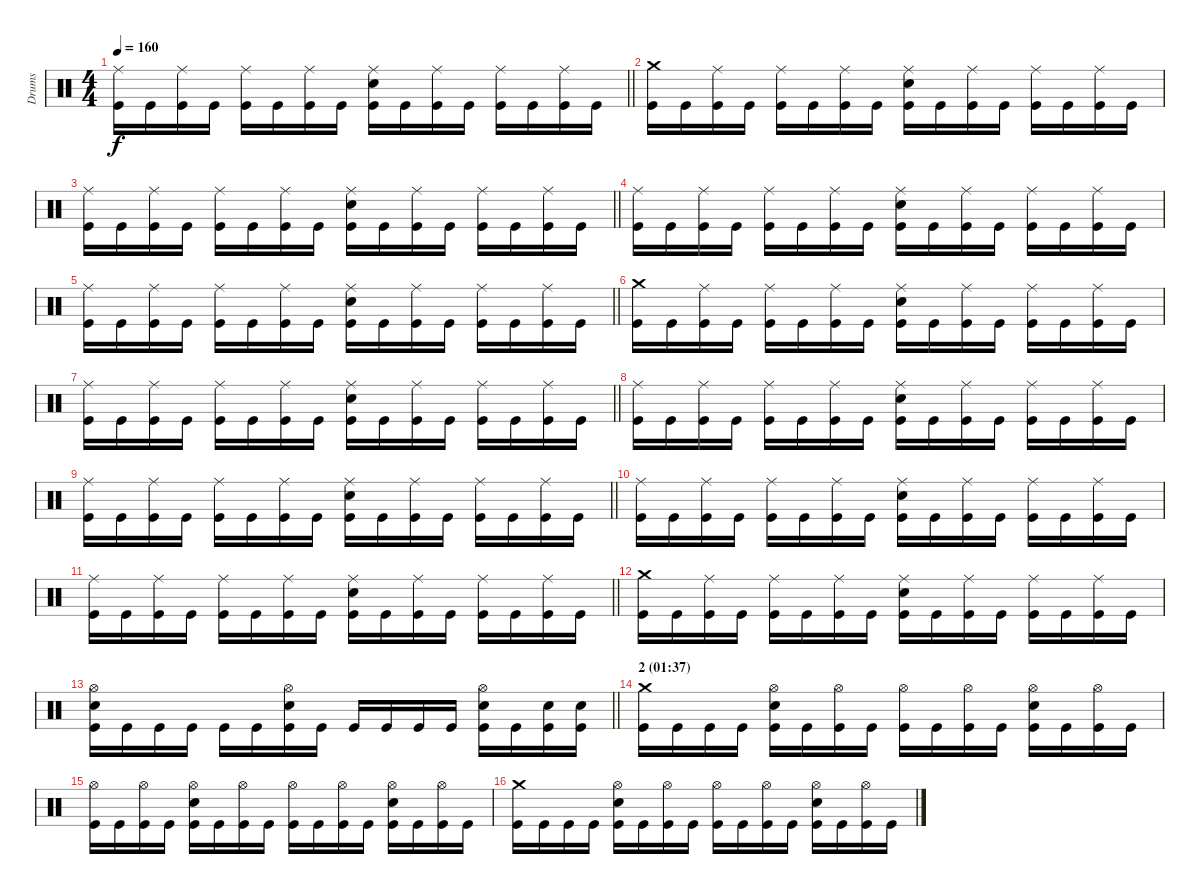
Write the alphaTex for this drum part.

\track ("Drums" "Drums") {instrument percussion}
\staff {score}
\articulation defaults
\ts (4 4)
\tempo 160
\clef neutral
\barLineRight lightlight
\ks c
("Ride (middle)" "Kick (hit)").16{dy f} "Kick (hit)".16 ("Ride (middle)" "Kick (hit)").16 "Kick (hit)".16 ("Ride (middle)" "Kick (hit)").16 "Kick (hit)".16 ("Ride (middle)" "Kick (hit)").16 "Kick (hit)".16 ("Ride (middle)" "Electric Snare (hit)" "Kick (hit)").16 "Kick (hit)".16 ("Ride (middle)" "Kick (hit)").16 "Kick (hit)".16 ("Ride (middle)" "Kick (hit)").16 "Kick (hit)".16 ("Ride (middle)" "Kick (hit)").16 "Kick (hit)".16 |
("Crash medium (hit)" "Kick (hit)").16 "Kick (hit)".16 ("Ride (middle)" "Kick (hit)").16 "Kick (hit)".16 ("Ride (middle)" "Kick (hit)").16 "Kick (hit)".16 ("Ride (middle)" "Kick (hit)").16 "Kick (hit)".16 ("Ride (middle)" "Electric Snare (hit)" "Kick (hit)").16 "Kick (hit)".16 ("Ride (middle)" "Kick (hit)").16 "Kick (hit)".16 ("Ride (middle)" "Kick (hit)").16 "Kick (hit)".16 ("Ride (middle)" "Kick (hit)").16 "Kick (hit)".16 |
\barLineRight lightlight
("Ride (middle)" "Kick (hit)").16 "Kick (hit)".16 ("Ride (middle)" "Kick (hit)").16 "Kick (hit)".16 ("Ride (middle)" "Kick (hit)").16 "Kick (hit)".16 ("Ride (middle)" "Kick (hit)").16 "Kick (hit)".16 ("Ride (middle)" "Electric Snare (hit)" "Kick (hit)").16 "Kick (hit)".16 ("Ride (middle)" "Kick (hit)").16 "Kick (hit)".16 ("Ride (middle)" "Kick (hit)").16 "Kick (hit)".16 ("Ride (middle)" "Kick (hit)").16 "Kick (hit)".16 |
("Ride (middle)" "Kick (hit)").16 "Kick (hit)".16 ("Ride (middle)" "Kick (hit)").16 "Kick (hit)".16 ("Ride (middle)" "Kick (hit)").16 "Kick (hit)".16 ("Ride (middle)" "Kick (hit)").16 "Kick (hit)".16 ("Ride (middle)" "Electric Snare (hit)" "Kick (hit)").16 "Kick (hit)".16 ("Ride (middle)" "Kick (hit)").16 "Kick (hit)".16 ("Ride (middle)" "Kick (hit)").16 "Kick (hit)".16 ("Ride (middle)" "Kick (hit)").16 "Kick (hit)".16 |
\barLineRight lightlight
("Ride (middle)" "Kick (hit)").16 "Kick (hit)".16 ("Ride (middle)" "Kick (hit)").16 "Kick (hit)".16 ("Ride (middle)" "Kick (hit)").16 "Kick (hit)".16 ("Ride (middle)" "Kick (hit)").16 "Kick (hit)".16 ("Ride (middle)" "Electric Snare (hit)" "Kick (hit)").16 "Kick (hit)".16 ("Ride (middle)" "Kick (hit)").16 "Kick (hit)".16 ("Ride (middle)" "Kick (hit)").16 "Kick (hit)".16 ("Ride (middle)" "Kick (hit)").16 "Kick (hit)".16 |
("Crash medium (hit)" "Kick (hit)").16 "Kick (hit)".16 ("Ride (middle)" "Kick (hit)").16 "Kick (hit)".16 ("Ride (middle)" "Kick (hit)").16 "Kick (hit)".16 ("Ride (middle)" "Kick (hit)").16 "Kick (hit)".16 ("Ride (middle)" "Electric Snare (hit)" "Kick (hit)").16 "Kick (hit)".16 ("Ride (middle)" "Kick (hit)").16 "Kick (hit)".16 ("Ride (middle)" "Kick (hit)").16 "Kick (hit)".16 ("Ride (middle)" "Kick (hit)").16 "Kick (hit)".16 |
\barLineRight lightlight
("Ride (middle)" "Kick (hit)").16 "Kick (hit)".16 ("Ride (middle)" "Kick (hit)").16 "Kick (hit)".16 ("Ride (middle)" "Kick (hit)").16 "Kick (hit)".16 ("Ride (middle)" "Kick (hit)").16 "Kick (hit)".16 ("Ride (middle)" "Electric Snare (hit)" "Kick (hit)").16 "Kick (hit)".16 ("Ride (middle)" "Kick (hit)").16 "Kick (hit)".16 ("Ride (middle)" "Kick (hit)").16 "Kick (hit)".16 ("Ride (middle)" "Kick (hit)").16 "Kick (hit)".16 |
("Ride (middle)" "Kick (hit)").16 "Kick (hit)".16 ("Ride (middle)" "Kick (hit)").16 "Kick (hit)".16 ("Ride (middle)" "Kick (hit)").16 "Kick (hit)".16 ("Ride (middle)" "Kick (hit)").16 "Kick (hit)".16 ("Ride (middle)" "Electric Snare (hit)" "Kick (hit)").16 "Kick (hit)".16 ("Ride (middle)" "Kick (hit)").16 "Kick (hit)".16 ("Ride (middle)" "Kick (hit)").16 "Kick (hit)".16 ("Ride (middle)" "Kick (hit)").16 "Kick (hit)".16 |
\barLineRight lightlight
("Ride (middle)" "Kick (hit)").16 "Kick (hit)".16 ("Ride (middle)" "Kick (hit)").16 "Kick (hit)".16 ("Ride (middle)" "Kick (hit)").16 "Kick (hit)".16 ("Ride (middle)" "Kick (hit)").16 "Kick (hit)".16 ("Ride (middle)" "Electric Snare (hit)" "Kick (hit)").16 "Kick (hit)".16 ("Ride (middle)" "Kick (hit)").16 "Kick (hit)".16 ("Ride (middle)" "Kick (hit)").16 "Kick (hit)".16 ("Ride (middle)" "Kick (hit)").16 "Kick (hit)".16 |
("Ride (middle)" "Kick (hit)").16 "Kick (hit)".16 ("Ride (middle)" "Kick (hit)").16 "Kick (hit)".16 ("Ride (middle)" "Kick (hit)").16 "Kick (hit)".16 ("Ride (middle)" "Kick (hit)").16 "Kick (hit)".16 ("Ride (middle)" "Electric Snare (hit)" "Kick (hit)").16 "Kick (hit)".16 ("Ride (middle)" "Kick (hit)").16 "Kick (hit)".16 ("Ride (middle)" "Kick (hit)").16 "Kick (hit)".16 ("Ride (middle)" "Kick (hit)").16 "Kick (hit)".16 |
\barLineRight lightlight
("Ride (middle)" "Kick (hit)").16 "Kick (hit)".16 ("Ride (middle)" "Kick (hit)").16 "Kick (hit)".16 ("Ride (middle)" "Kick (hit)").16 "Kick (hit)".16 ("Ride (middle)" "Kick (hit)").16 "Kick (hit)".16 ("Ride (middle)" "Electric Snare (hit)" "Kick (hit)").16 "Kick (hit)".16 ("Ride (middle)" "Kick (hit)").16 "Kick (hit)".16 ("Ride (middle)" "Kick (hit)").16 "Kick (hit)".16 ("Ride (middle)" "Kick (hit)").16 "Kick (hit)".16 |
("Crash medium (hit)" "Kick (hit)").16 "Kick (hit)".16 ("Ride (middle)" "Kick (hit)").16 "Kick (hit)".16 ("Ride (middle)" "Kick (hit)").16 "Kick (hit)".16 ("Ride (middle)" "Kick (hit)").16 "Kick (hit)".16 ("Ride (middle)" "Electric Snare (hit)" "Kick (hit)").16 "Kick (hit)".16 ("Ride (middle)" "Kick (hit)").16 "Kick (hit)".16 ("Ride (middle)" "Kick (hit)").16 "Kick (hit)".16 ("Ride (middle)" "Kick (hit)").16 "Kick (hit)".16 |
\barLineRight lightlight
("Hi-Hat (open)" "Electric Snare (hit)" "Kick (hit)").16 "Kick (hit)".16 "Kick (hit)".16 "Kick (hit)".16 "Kick (hit)".16 "Kick (hit)".16 ("Hi-Hat (open)" "Electric Snare (hit)" "Kick (hit)").16 "Kick (hit)".16 "Kick (hit)".16 "Kick (hit)".16 "Kick (hit)".16 "Kick (hit)".16 ("Hi-Hat (open)" "Electric Snare (hit)" "Kick (hit)").16 "Kick (hit)".16 ("Electric Snare (hit)" "Kick (hit)").16 ("Electric Snare (hit)" "Kick (hit)").16 |
\section ("" "2 (01:37)")
("Crash medium (hit)" "Kick (hit)").16 "Kick (hit)".16 "Kick (hit)".16 "Kick (hit)".16 ("Hi-Hat (open)" "Electric Snare (hit)" "Kick (hit)").16 "Kick (hit)".16 ("Hi-Hat (open)" "Kick (hit)").16 "Kick (hit)".16 ("Hi-Hat (open)" "Kick (hit)").16 "Kick (hit)".16 ("Hi-Hat (open)" "Kick (hit)").16 "Kick (hit)".16 ("Hi-Hat (open)" "Electric Snare (hit)" "Kick (hit)").16 "Kick (hit)".16 ("Hi-Hat (open)" "Kick (hit)").16 "Kick (hit)".16 |
("Hi-Hat (open)" "Kick (hit)").16 "Kick (hit)".16 ("Hi-Hat (open)" "Kick (hit)").16 "Kick (hit)".16 ("Hi-Hat (open)" "Electric Snare (hit)" "Kick (hit)").16 "Kick (hit)".16 ("Hi-Hat (open)" "Kick (hit)").16 "Kick (hit)".16 ("Hi-Hat (open)" "Kick (hit)").16 "Kick (hit)".16 ("Hi-Hat (open)" "Kick (hit)").16 "Kick (hit)".16 ("Hi-Hat (open)" "Electric Snare (hit)" "Kick (hit)").16 "Kick (hit)".16 ("Hi-Hat (open)" "Kick (hit)").16 "Kick (hit)".16 |
("Crash medium (hit)" "Kick (hit)").16 "Kick (hit)".16 "Kick (hit)".16 "Kick (hit)".16 ("Hi-Hat (open)" "Electric Snare (hit)" "Kick (hit)").16 "Kick (hit)".16 ("Hi-Hat (open)" "Kick (hit)").16 "Kick (hit)".16 ("Hi-Hat (open)" "Kick (hit)").16 "Kick (hit)".16 ("Hi-Hat (open)" "Kick (hit)").16 "Kick (hit)".16 ("Hi-Hat (open)" "Electric Snare (hit)" "Kick (hit)").16 "Kick (hit)".16 ("Hi-Hat (open)" "Kick (hit)").16 "Kick (hit)".16
